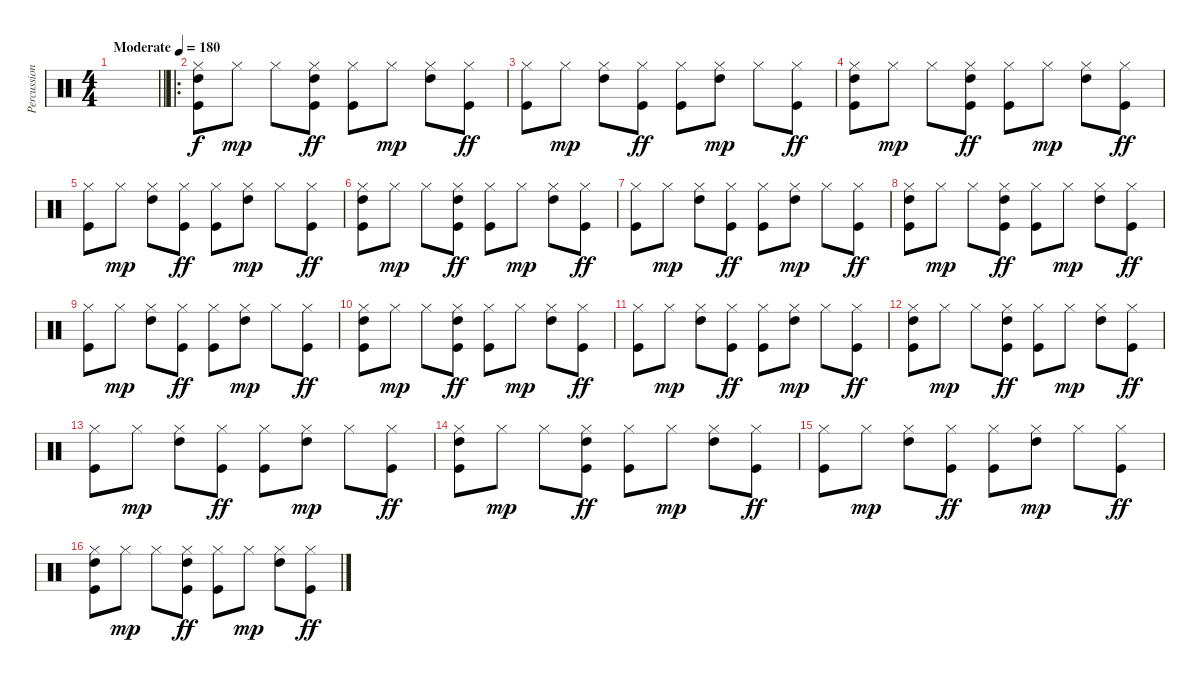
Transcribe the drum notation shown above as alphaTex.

\track ("Percussions" "Percussion") {instrument percussion}
\staff {score}
\articulation defaults
\ts (4 4)
\tempo (180 "Moderate")
\clef neutral
\barLineRight lightlight
\ks c
|
\ro
("Hi-Hat (closed)" "High Tom (hit)" "Kick (hit)").8 "Hi-Hat (closed)".8{dy mp} "Hi-Hat (closed)".8 ("Hi-Hat (closed)" "High Tom (hit)" "Kick (hit)").8{dy ff} ("Hi-Hat (closed)" "Kick (hit)").8 "Hi-Hat (closed)".8{dy mp} ("Hi-Hat (closed)" "High Tom (hit)").8 ("Hi-Hat (closed)" "Kick (hit)").8{dy ff} |
("Hi-Hat (closed)" "Kick (hit)").8 "Hi-Hat (closed)".8{dy mp} ("Hi-Hat (closed)" "High Tom (hit)").8 ("Hi-Hat (closed)" "Kick (hit)").8{dy ff} ("Hi-Hat (closed)" "Kick (hit)").8 ("Hi-Hat (closed)" "High Tom (hit)").8{dy mp} "Hi-Hat (closed)".8 ("Hi-Hat (closed)" "Kick (hit)").8{dy ff} |
("Hi-Hat (closed)" "High Tom (hit)" "Kick (hit)").8 "Hi-Hat (closed)".8{dy mp} "Hi-Hat (closed)".8 ("Hi-Hat (closed)" "High Tom (hit)" "Kick (hit)").8{dy ff} ("Hi-Hat (closed)" "Kick (hit)").8 "Hi-Hat (closed)".8{dy mp} ("Hi-Hat (closed)" "High Tom (hit)").8 ("Hi-Hat (closed)" "Kick (hit)").8{dy ff} |
("Hi-Hat (closed)" "Kick (hit)").8 "Hi-Hat (closed)".8{dy mp} ("Hi-Hat (closed)" "High Tom (hit)").8 ("Hi-Hat (closed)" "Kick (hit)").8{dy ff} ("Hi-Hat (closed)" "Kick (hit)").8 ("Hi-Hat (closed)" "High Tom (hit)").8{dy mp} "Hi-Hat (closed)".8 ("Hi-Hat (closed)" "Kick (hit)").8{dy ff} |
("Hi-Hat (closed)" "High Tom (hit)" "Kick (hit)").8 "Hi-Hat (closed)".8{dy mp} "Hi-Hat (closed)".8 ("Hi-Hat (closed)" "High Tom (hit)" "Kick (hit)").8{dy ff} ("Hi-Hat (closed)" "Kick (hit)").8 "Hi-Hat (closed)".8{dy mp} ("Hi-Hat (closed)" "High Tom (hit)").8 ("Hi-Hat (closed)" "Kick (hit)").8{dy ff} |
("Hi-Hat (closed)" "Kick (hit)").8 "Hi-Hat (closed)".8{dy mp} ("Hi-Hat (closed)" "High Tom (hit)").8 ("Hi-Hat (closed)" "Kick (hit)").8{dy ff} ("Hi-Hat (closed)" "Kick (hit)").8 ("Hi-Hat (closed)" "High Tom (hit)").8{dy mp} "Hi-Hat (closed)".8 ("Hi-Hat (closed)" "Kick (hit)").8{dy ff} |
("Hi-Hat (closed)" "High Tom (hit)" "Kick (hit)").8 "Hi-Hat (closed)".8{dy mp} "Hi-Hat (closed)".8 ("Hi-Hat (closed)" "High Tom (hit)" "Kick (hit)").8{dy ff} ("Hi-Hat (closed)" "Kick (hit)").8 "Hi-Hat (closed)".8{dy mp} ("Hi-Hat (closed)" "High Tom (hit)").8 ("Hi-Hat (closed)" "Kick (hit)").8{dy ff} |
("Hi-Hat (closed)" "Kick (hit)").8 "Hi-Hat (closed)".8{dy mp} ("Hi-Hat (closed)" "High Tom (hit)").8 ("Hi-Hat (closed)" "Kick (hit)").8{dy ff} ("Hi-Hat (closed)" "Kick (hit)").8 ("Hi-Hat (closed)" "High Tom (hit)").8{dy mp} "Hi-Hat (closed)".8 ("Hi-Hat (closed)" "Kick (hit)").8{dy ff} |
("Hi-Hat (closed)" "High Tom (hit)" "Kick (hit)").8 "Hi-Hat (closed)".8{dy mp} "Hi-Hat (closed)".8 ("Hi-Hat (closed)" "High Tom (hit)" "Kick (hit)").8{dy ff} ("Hi-Hat (closed)" "Kick (hit)").8 "Hi-Hat (closed)".8{dy mp} ("Hi-Hat (closed)" "High Tom (hit)").8 ("Hi-Hat (closed)" "Kick (hit)").8{dy ff} |
("Hi-Hat (closed)" "Kick (hit)").8 "Hi-Hat (closed)".8{dy mp} ("Hi-Hat (closed)" "High Tom (hit)").8 ("Hi-Hat (closed)" "Kick (hit)").8{dy ff} ("Hi-Hat (closed)" "Kick (hit)").8 ("Hi-Hat (closed)" "High Tom (hit)").8{dy mp} "Hi-Hat (closed)".8 ("Hi-Hat (closed)" "Kick (hit)").8{dy ff} |
("Hi-Hat (closed)" "High Tom (hit)" "Kick (hit)").8 "Hi-Hat (closed)".8{dy mp} "Hi-Hat (closed)".8 ("Hi-Hat (closed)" "High Tom (hit)" "Kick (hit)").8{dy ff} ("Hi-Hat (closed)" "Kick (hit)").8 "Hi-Hat (closed)".8{dy mp} ("Hi-Hat (closed)" "High Tom (hit)").8 ("Hi-Hat (closed)" "Kick (hit)").8{dy ff} |
("Hi-Hat (closed)" "Kick (hit)").8 "Hi-Hat (closed)".8{dy mp} ("Hi-Hat (closed)" "High Tom (hit)").8 ("Hi-Hat (closed)" "Kick (hit)").8{dy ff} ("Hi-Hat (closed)" "Kick (hit)").8 ("Hi-Hat (closed)" "High Tom (hit)").8{dy mp} "Hi-Hat (closed)".8 ("Hi-Hat (closed)" "Kick (hit)").8{dy ff} |
("Hi-Hat (closed)" "High Tom (hit)" "Kick (hit)").8 "Hi-Hat (closed)".8{dy mp} "Hi-Hat (closed)".8 ("Hi-Hat (closed)" "High Tom (hit)" "Kick (hit)").8{dy ff} ("Hi-Hat (closed)" "Kick (hit)").8 "Hi-Hat (closed)".8{dy mp} ("Hi-Hat (closed)" "High Tom (hit)").8 ("Hi-Hat (closed)" "Kick (hit)").8{dy ff} |
("Hi-Hat (closed)" "Kick (hit)").8 "Hi-Hat (closed)".8{dy mp} ("Hi-Hat (closed)" "High Tom (hit)").8 ("Hi-Hat (closed)" "Kick (hit)").8{dy ff} ("Hi-Hat (closed)" "Kick (hit)").8 ("Hi-Hat (closed)" "High Tom (hit)").8{dy mp} "Hi-Hat (closed)".8 ("Hi-Hat (closed)" "Kick (hit)").8{dy ff} |
("Hi-Hat (closed)" "High Tom (hit)" "Kick (hit)").8 "Hi-Hat (closed)".8{dy mp} "Hi-Hat (closed)".8 ("Hi-Hat (closed)" "High Tom (hit)" "Kick (hit)").8{dy ff} ("Hi-Hat (closed)" "Kick (hit)").8 "Hi-Hat (closed)".8{dy mp} ("Hi-Hat (closed)" "High Tom (hit)").8 ("Hi-Hat (closed)" "Kick (hit)").8{dy ff}
